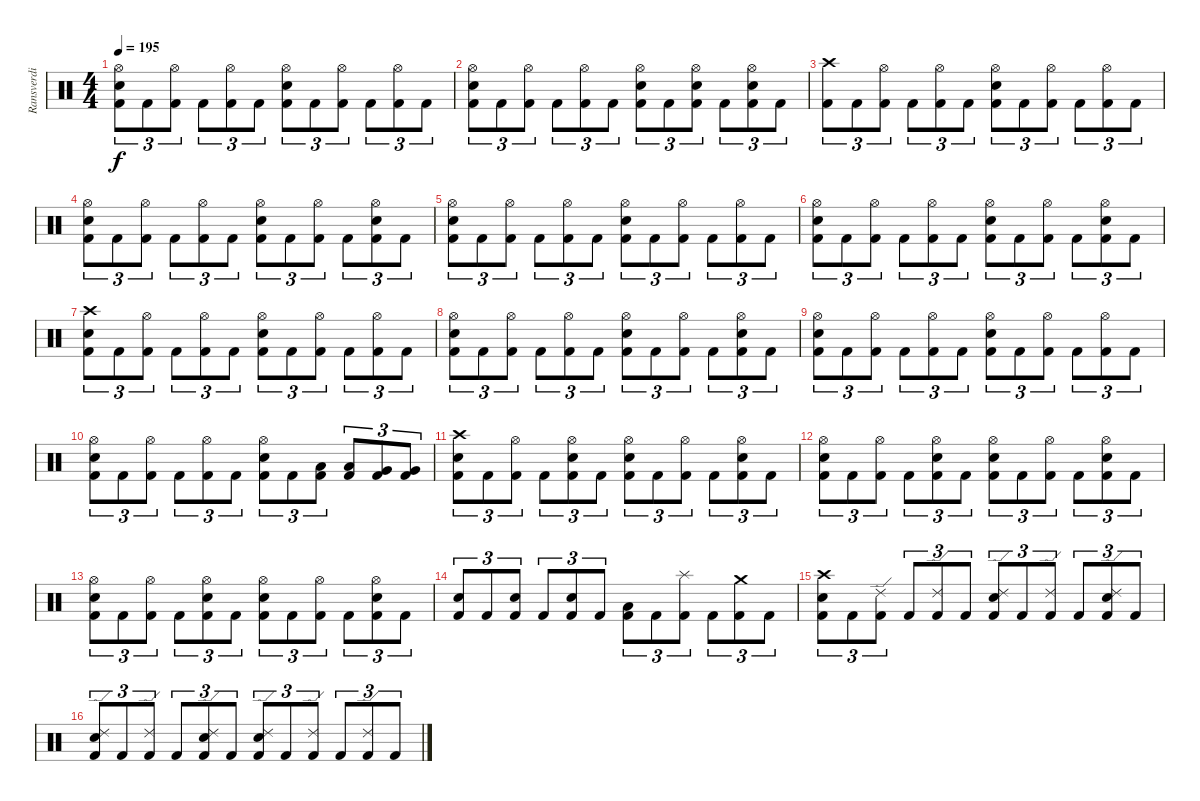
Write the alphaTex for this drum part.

\track ("Ransverdi" "Ransverdi") {instrument percussion}
\staff {score}
\articulation defaults
\ts (4 4)
\tempo 195
\clef neutral
\ks c
("Hi-Hat (open)" "Snare (hit) 2" "Kick (hit) 2").8{tu (3 2) dy f} "Kick (hit) 2".8{tu (3 2)} ("Hi-Hat (open)" "Kick (hit) 2").8{tu (3 2)} "Kick (hit) 2".8{tu (3 2)} ("Hi-Hat (open)" "Kick (hit) 2").8{tu (3 2)} "Kick (hit) 2".8{tu (3 2)} ("Hi-Hat (open)" "Snare (hit) 2" "Kick (hit) 2").8{tu (3 2)} "Kick (hit) 2".8{tu (3 2)} ("Hi-Hat (open)" "Kick (hit) 2").8{tu (3 2)} "Kick (hit) 2".8{tu (3 2)} ("Hi-Hat (open)" "Kick (hit) 2").8{tu (3 2)} "Kick (hit) 2".8{tu (3 2)} |
("Hi-Hat (open)" "Snare (hit) 2" "Kick (hit) 2").8{tu (3 2)} "Kick (hit) 2".8{tu (3 2)} ("Hi-Hat (open)" "Kick (hit) 2").8{tu (3 2)} "Kick (hit) 2".8{tu (3 2)} ("Hi-Hat (open)" "Kick (hit) 2").8{tu (3 2)} "Kick (hit) 2".8{tu (3 2)} ("Hi-Hat (open)" "Snare (hit) 2" "Kick (hit) 2").8{tu (3 2)} "Kick (hit) 2".8{tu (3 2)} ("Hi-Hat (open)" "Snare (hit) 2" "Kick (hit) 2").8{tu (3 2)} "Kick (hit) 2".8{tu (3 2)} ("Hi-Hat (open)" "Snare (hit) 2" "Kick (hit) 2").8{tu (3 2)} "Kick (hit) 2".8{tu (3 2)} |
("Crash high (hit)" "Kick (hit) 2").8{tu (3 2)} "Kick (hit) 2".8{tu (3 2)} ("Hi-Hat (open)" "Kick (hit) 2").8{tu (3 2)} "Kick (hit) 2".8{tu (3 2)} ("Hi-Hat (open)" "Kick (hit) 2").8{tu (3 2)} "Kick (hit) 2".8{tu (3 2)} ("Hi-Hat (open)" "Snare (hit) 2" "Kick (hit) 2").8{tu (3 2)} "Kick (hit) 2".8{tu (3 2)} ("Hi-Hat (open)" "Kick (hit) 2").8{tu (3 2)} "Kick (hit) 2".8{tu (3 2)} ("Hi-Hat (open)" "Kick (hit) 2").8{tu (3 2)} "Kick (hit) 2".8{tu (3 2)} |
("Hi-Hat (open)" "Snare (hit) 2" "Kick (hit) 2").8{tu (3 2)} "Kick (hit) 2".8{tu (3 2)} ("Hi-Hat (open)" "Kick (hit) 2").8{tu (3 2)} "Kick (hit) 2".8{tu (3 2)} ("Hi-Hat (open)" "Kick (hit) 2").8{tu (3 2)} "Kick (hit) 2".8{tu (3 2)} ("Hi-Hat (open)" "Snare (hit) 2" "Kick (hit) 2").8{tu (3 2)} "Kick (hit) 2".8{tu (3 2)} ("Hi-Hat (open)" "Kick (hit) 2").8{tu (3 2)} "Kick (hit) 2".8{tu (3 2)} ("Hi-Hat (open)" "Snare (hit) 2" "Kick (hit) 2").8{tu (3 2)} "Kick (hit) 2".8{tu (3 2)} |
("Hi-Hat (open)" "Snare (hit) 2" "Kick (hit) 2").8{tu (3 2)} "Kick (hit) 2".8{tu (3 2)} ("Hi-Hat (open)" "Kick (hit) 2").8{tu (3 2)} "Kick (hit) 2".8{tu (3 2)} ("Hi-Hat (open)" "Kick (hit) 2").8{tu (3 2)} "Kick (hit) 2".8{tu (3 2)} ("Hi-Hat (open)" "Snare (hit) 2" "Kick (hit) 2").8{tu (3 2)} "Kick (hit) 2".8{tu (3 2)} ("Hi-Hat (open)" "Kick (hit) 2").8{tu (3 2)} "Kick (hit) 2".8{tu (3 2)} ("Hi-Hat (open)" "Kick (hit) 2").8{tu (3 2)} "Kick (hit) 2".8{tu (3 2)} |
("Hi-Hat (open)" "Snare (hit) 2" "Kick (hit) 2").8{tu (3 2)} "Kick (hit) 2".8{tu (3 2)} ("Hi-Hat (open)" "Kick (hit) 2").8{tu (3 2)} "Kick (hit) 2".8{tu (3 2)} ("Hi-Hat (open)" "Kick (hit) 2").8{tu (3 2)} "Kick (hit) 2".8{tu (3 2)} ("Hi-Hat (open)" "Snare (hit) 2" "Kick (hit) 2").8{tu (3 2)} "Kick (hit) 2".8{tu (3 2)} ("Hi-Hat (open)" "Kick (hit) 2").8{tu (3 2)} "Kick (hit) 2".8{tu (3 2)} ("Hi-Hat (open)" "Snare (hit) 2" "Kick (hit) 2").8{tu (3 2)} "Kick (hit) 2".8{tu (3 2)} |
("Crash high (hit)" "Snare (hit) 2" "Kick (hit) 2").8{tu (3 2)} "Kick (hit) 2".8{tu (3 2)} ("Hi-Hat (open)" "Kick (hit) 2").8{tu (3 2)} "Kick (hit) 2".8{tu (3 2)} ("Hi-Hat (open)" "Kick (hit) 2").8{tu (3 2)} "Kick (hit) 2".8{tu (3 2)} ("Hi-Hat (open)" "Snare (hit) 2" "Kick (hit) 2").8{tu (3 2)} "Kick (hit) 2".8{tu (3 2)} ("Hi-Hat (open)" "Kick (hit) 2").8{tu (3 2)} "Kick (hit) 2".8{tu (3 2)} ("Hi-Hat (open)" "Kick (hit) 2").8{tu (3 2)} "Kick (hit) 2".8{tu (3 2)} |
("Hi-Hat (open)" "Snare (hit) 2" "Kick (hit) 2").8{tu (3 2)} "Kick (hit) 2".8{tu (3 2)} ("Hi-Hat (open)" "Kick (hit) 2").8{tu (3 2)} "Kick (hit) 2".8{tu (3 2)} ("Hi-Hat (open)" "Kick (hit) 2").8{tu (3 2)} "Kick (hit) 2".8{tu (3 2)} ("Hi-Hat (open)" "Snare (hit) 2" "Kick (hit) 2").8{tu (3 2)} "Kick (hit) 2".8{tu (3 2)} ("Hi-Hat (open)" "Kick (hit) 2").8{tu (3 2)} "Kick (hit) 2".8{tu (3 2)} ("Hi-Hat (open)" "Snare (hit) 2" "Kick (hit) 2").8{tu (3 2)} "Kick (hit) 2".8{tu (3 2)} |
("Hi-Hat (open)" "Snare (hit) 2" "Kick (hit) 2").8{tu (3 2)} "Kick (hit) 2".8{tu (3 2)} ("Hi-Hat (open)" "Kick (hit) 2").8{tu (3 2)} "Kick (hit) 2".8{tu (3 2)} ("Hi-Hat (open)" "Kick (hit) 2").8{tu (3 2)} "Kick (hit) 2".8{tu (3 2)} ("Hi-Hat (open)" "Snare (hit) 2" "Kick (hit) 2").8{tu (3 2)} "Kick (hit) 2".8{tu (3 2)} ("Hi-Hat (open)" "Kick (hit) 2").8{tu (3 2)} "Kick (hit) 2".8{tu (3 2)} ("Hi-Hat (open)" "Kick (hit) 2").8{tu (3 2)} "Kick (hit) 2".8{tu (3 2)} |
("Hi-Hat (open)" "Snare (hit) 2" "Kick (hit) 2").8{tu (3 2)} "Kick (hit) 2".8{tu (3 2)} ("Hi-Hat (open)" "Kick (hit) 2").8{tu (3 2)} "Kick (hit) 2".8{tu (3 2)} ("Hi-Hat (open)" "Kick (hit) 2").8{tu (3 2)} "Kick (hit) 2".8{tu (3 2)} ("Hi-Hat (open)" "Snare (hit) 2" "Kick (hit) 2").8{tu (3 2)} "Kick (hit) 2".8{tu (3 2)} ("Low Tom (hit)" "Kick (hit) 2").8{tu (3 2)} ("Low Tom (hit)" "Kick (hit) 2").8{tu (3 2)} ("Very Low Tom (hit)" "Kick (hit) 2").8{tu (3 2)} ("Very Low Tom (hit)" "Kick (hit) 2").8{tu (3 2)} |
("Crash high (hit)" "Snare (hit) 2" "Kick (hit) 2").8{tu (3 2)} "Kick (hit) 2".8{tu (3 2)} ("Hi-Hat (open)" "Kick (hit) 2").8{tu (3 2)} "Kick (hit) 2".8{tu (3 2)} ("Hi-Hat (open)" "Snare (hit) 2" "Kick (hit) 2").8{tu (3 2)} "Kick (hit) 2".8{tu (3 2)} ("Hi-Hat (open)" "Snare (hit) 2" "Kick (hit) 2").8{tu (3 2)} "Kick (hit) 2".8{tu (3 2)} ("Hi-Hat (open)" "Kick (hit) 2").8{tu (3 2)} "Kick (hit) 2".8{tu (3 2)} ("Hi-Hat (open)" "Snare (hit) 2" "Kick (hit) 2").8{tu (3 2)} "Kick (hit) 2".8{tu (3 2)} |
("Hi-Hat (open)" "Snare (hit) 2" "Kick (hit) 2").8{tu (3 2)} "Kick (hit) 2".8{tu (3 2)} ("Hi-Hat (open)" "Kick (hit) 2").8{tu (3 2)} "Kick (hit) 2".8{tu (3 2)} ("Hi-Hat (open)" "Snare (hit) 2" "Kick (hit) 2").8{tu (3 2)} "Kick (hit) 2".8{tu (3 2)} ("Hi-Hat (open)" "Snare (hit) 2" "Kick (hit) 2").8{tu (3 2)} "Kick (hit) 2".8{tu (3 2)} ("Hi-Hat (open)" "Kick (hit) 2").8{tu (3 2)} "Kick (hit) 2".8{tu (3 2)} ("Hi-Hat (open)" "Snare (hit) 2" "Kick (hit) 2").8{tu (3 2)} "Kick (hit) 2".8{tu (3 2)} |
("Hi-Hat (open)" "Snare (hit) 2" "Kick (hit) 2").8{tu (3 2)} "Kick (hit) 2".8{tu (3 2)} ("Hi-Hat (open)" "Kick (hit) 2").8{tu (3 2)} "Kick (hit) 2".8{tu (3 2)} ("Hi-Hat (open)" "Snare (hit) 2" "Kick (hit) 2").8{tu (3 2)} "Kick (hit) 2".8{tu (3 2)} ("Hi-Hat (open)" "Snare (hit) 2" "Kick (hit) 2").8{tu (3 2)} "Kick (hit) 2".8{tu (3 2)} ("Hi-Hat (open)" "Kick (hit) 2").8{tu (3 2)} "Kick (hit) 2".8{tu (3 2)} ("Hi-Hat (open)" "Snare (hit) 2" "Kick (hit) 2").8{tu (3 2)} "Kick (hit) 2".8{tu (3 2)} |
("Snare (hit) 2" "Kick (hit) 2").8{tu (3 2)} "Kick (hit) 2".8{tu (3 2)} ("Snare (hit) 2" "Kick (hit) 2").8{tu (3 2)} "Kick (hit) 2".8{tu (3 2)} ("Snare (hit) 2" "Kick (hit) 2").8{tu (3 2)} "Kick (hit) 2".8{tu (3 2)} ("Low Tom (hit)" "Kick (hit) 2").8{tu (3 2)} "Kick (hit) 2".8{tu (3 2)} ("Splash (hit)" "Kick (hit) 2").8{tu (3 2)} "Kick (hit) 2".8{tu (3 2)} ("Crash medium (hit)" "Kick (hit) 2").8{tu (3 2)} "Kick (hit) 2".8{tu (3 2)} |
("Crash high (hit)" "Snare (hit) 2" "Kick (hit) 2").8{tu (3 2)} "Kick (hit) 2".8{tu (3 2)} ("Ride (edge) 2" "Kick (hit) 2").8{tu (3 2)} "Kick (hit) 2".8{tu (3 2)} ("Ride (edge) 2" "Kick (hit) 2").8{tu (3 2)} "Kick (hit) 2".8{tu (3 2)} ("Ride (edge) 2" "Snare (hit) 2" "Kick (hit) 2").8{tu (3 2)} "Kick (hit) 2".8{tu (3 2)} ("Ride (edge) 2" "Kick (hit) 2").8{tu (3 2)} "Kick (hit) 2".8{tu (3 2)} ("Ride (edge) 2" "Snare (hit) 2" "Kick (hit) 2").8{tu (3 2)} "Kick (hit) 2".8{tu (3 2)} |
("Ride (edge) 2" "Snare (hit) 2" "Kick (hit) 2").8{tu (3 2)} "Kick (hit) 2".8{tu (3 2)} ("Ride (edge) 2" "Kick (hit) 2").8{tu (3 2)} "Kick (hit) 2".8{tu (3 2)} ("Ride (edge) 2" "Snare (hit) 2" "Kick (hit) 2").8{tu (3 2)} "Kick (hit) 2".8{tu (3 2)} ("Ride (edge) 2" "Snare (hit) 2" "Kick (hit) 2").8{tu (3 2)} "Kick (hit) 2".8{tu (3 2)} ("Ride (edge) 2" "Kick (hit) 2").8{tu (3 2)} "Kick (hit) 2".8{tu (3 2)} ("Ride (edge) 2" "Kick (hit) 2").8{tu (3 2)} "Kick (hit) 2".8{tu (3 2)}
